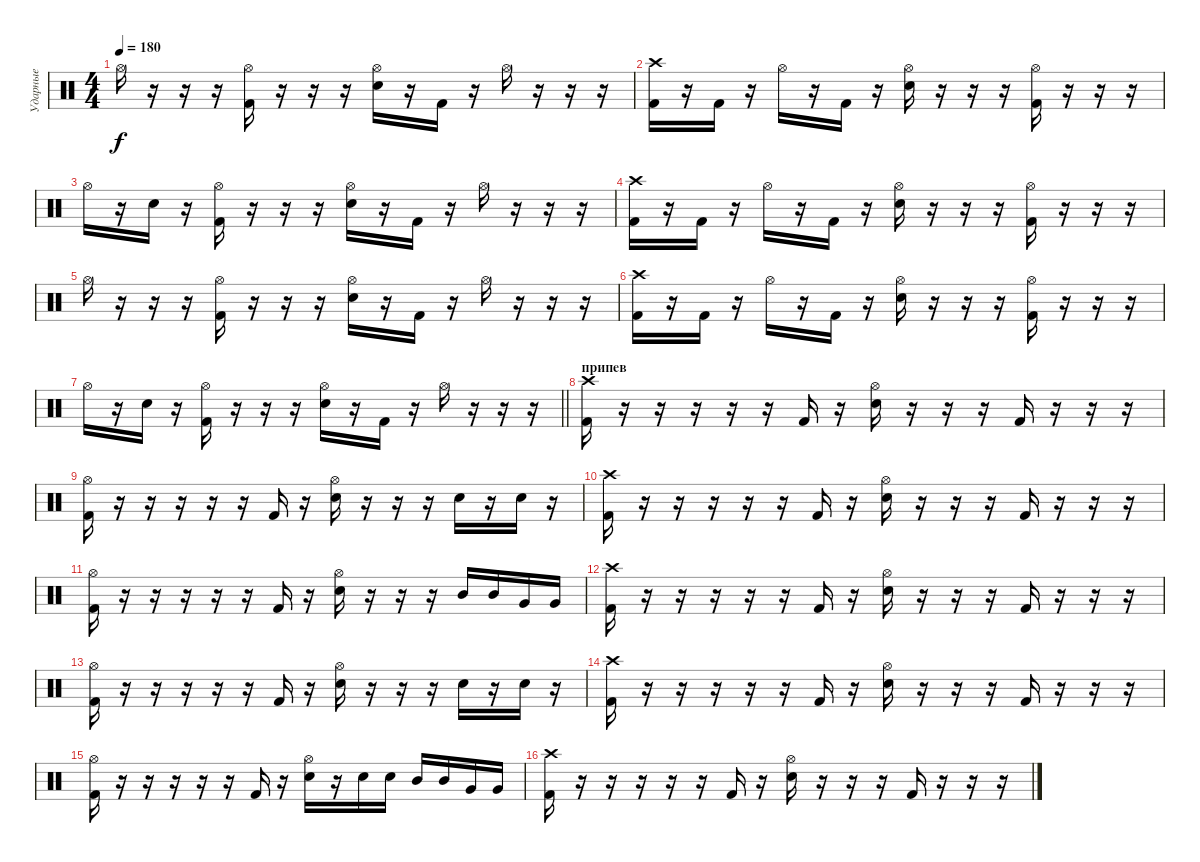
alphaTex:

\track ("Ударные" "Ударные") {instrument percussion}
\staff {score}
\articulation defaults
\ts (4 4)
\tempo 180
\clef neutral
\ks c "Hi-Hat (open)".16{dy f}
r.16 r.16 r.16 ("Hi-Hat (open)" "Kick (hit) 2").16 r.16 r.16 r.16 ("Hi-Hat (open)" "Electric Snare (hit)").16 r.16 "Kick (hit) 2".16 r.16 "Hi-Hat (open)".16 r.16 r.16 r.16 |
("Crash high (hit)" "Kick (hit) 2").16 r.16 "Kick (hit) 2".16 r.16 "Hi-Hat (open)".16 r.16 "Kick (hit) 2".16 r.16 ("Hi-Hat (open)" "Electric Snare (hit)").16 r.16 r.16 r.16 ("Hi-Hat (open)" "Kick (hit) 2").16 r.16 r.16 r.16 |
"Hi-Hat (open)".16 r.16 "Electric Snare (hit)".16 r.16 ("Hi-Hat (open)" "Kick (hit) 2").16 r.16 r.16 r.16 ("Hi-Hat (open)" "Electric Snare (hit)").16 r.16 "Kick (hit) 2".16 r.16 "Hi-Hat (open)".16 r.16 r.16 r.16 |
("Crash high (hit)" "Kick (hit) 2").16 r.16 "Kick (hit) 2".16 r.16 "Hi-Hat (open)".16 r.16 "Kick (hit) 2".16 r.16 ("Hi-Hat (open)" "Electric Snare (hit)").16 r.16 r.16 r.16 ("Hi-Hat (open)" "Kick (hit) 2").16 r.16 r.16 r.16 |
"Hi-Hat (open)".16 r.16 r.16 r.16 ("Hi-Hat (open)" "Kick (hit) 2").16 r.16 r.16 r.16 ("Hi-Hat (open)" "Electric Snare (hit)").16 r.16 "Kick (hit) 2".16 r.16 "Hi-Hat (open)".16 r.16 r.16 r.16 |
("Crash high (hit)" "Kick (hit) 2").16 r.16 "Kick (hit) 2".16 r.16 "Hi-Hat (open)".16 r.16 "Kick (hit) 2".16 r.16 ("Hi-Hat (open)" "Electric Snare (hit)").16 r.16 r.16 r.16 ("Hi-Hat (open)" "Kick (hit) 2").16 r.16 r.16 r.16 |
\barLineRight lightlight "Hi-Hat (open)".16
r.16 "Electric Snare (hit)".16 r.16 ("Hi-Hat (open)" "Kick (hit) 2").16 r.16 r.16 r.16 ("Hi-Hat (open)" "Electric Snare (hit)").16 r.16 "Kick (hit) 2".16 r.16 "Hi-Hat (open)".16 r.16 r.16 r.16 |
\section ("" "припев")
("Kick (hit) 2" "Crash high (hit)").16 r.16 r.16 r.16 r.16 r.16 "Kick (hit) 2".16 r.16 ("Electric Snare (hit)" "Hi-Hat (open)").16 r.16 r.16 r.16 "Kick (hit) 2".16 r.16 r.16 r.16 |
("Kick (hit) 2" "Hi-Hat (open)").16 r.16 r.16 r.16 r.16 r.16 "Kick (hit) 2".16 r.16 ("Electric Snare (hit)" "Hi-Hat (open)").16 r.16 r.16 r.16 "Electric Snare (hit)".16 r.16 "Electric Snare (hit)".16 r.16 |
("Kick (hit) 2" "Crash high (hit)").16 r.16 r.16 r.16 r.16 r.16 "Kick (hit) 2".16 r.16 ("Electric Snare (hit)" "Hi-Hat (open)").16 r.16 r.16 r.16 "Kick (hit) 2".16 r.16 r.16 r.16 |
("Kick (hit) 2" "Hi-Hat (open)").16 r.16 r.16 r.16 r.16 r.16 "Kick (hit) 2".16 r.16 ("Electric Snare (hit)" "Hi-Hat (open)").16 r.16 r.16 r.16 "Mid Tom (hit)".16 "Mid Tom (hit)".16 "Very Low Tom (hit)".16 "Very Low Tom (hit)".16 |
("Kick (hit) 2" "Crash high (hit)").16 r.16 r.16 r.16 r.16 r.16 "Kick (hit) 2".16 r.16 ("Electric Snare (hit)" "Hi-Hat (open)").16 r.16 r.16 r.16 "Kick (hit) 2".16 r.16 r.16 r.16 |
("Kick (hit) 2" "Hi-Hat (open)").16 r.16 r.16 r.16 r.16 r.16 "Kick (hit) 2".16 r.16 ("Electric Snare (hit)" "Hi-Hat (open)").16 r.16 r.16 r.16 "Electric Snare (hit)".16 r.16 "Electric Snare (hit)".16 r.16 |
("Kick (hit) 2" "Crash high (hit)").16 r.16 r.16 r.16 r.16 r.16 "Kick (hit) 2".16 r.16 ("Electric Snare (hit)" "Hi-Hat (open)").16 r.16 r.16 r.16 "Kick (hit) 2".16 r.16 r.16 r.16 |
("Kick (hit) 2" "Hi-Hat (open)").16 r.16 r.16 r.16 r.16 r.16 "Kick (hit) 2".16 r.16 ("Electric Snare (hit)" "Hi-Hat (open)").16 r.16 "Electric Snare (hit)".16 "Electric Snare (hit)".16 "Mid Tom (hit)".16 "Mid Tom (hit)".16 "Very Low Tom (hit)".16 "Very Low Tom (hit)".16 |
("Kick (hit) 2" "Crash high (hit)").16 r.16 r.16 r.16 r.16 r.16 "Kick (hit) 2".16 r.16 ("Electric Snare (hit)" "Hi-Hat (open)").16 r.16 r.16 r.16 "Kick (hit) 2".16 r.16 r.16 r.16
